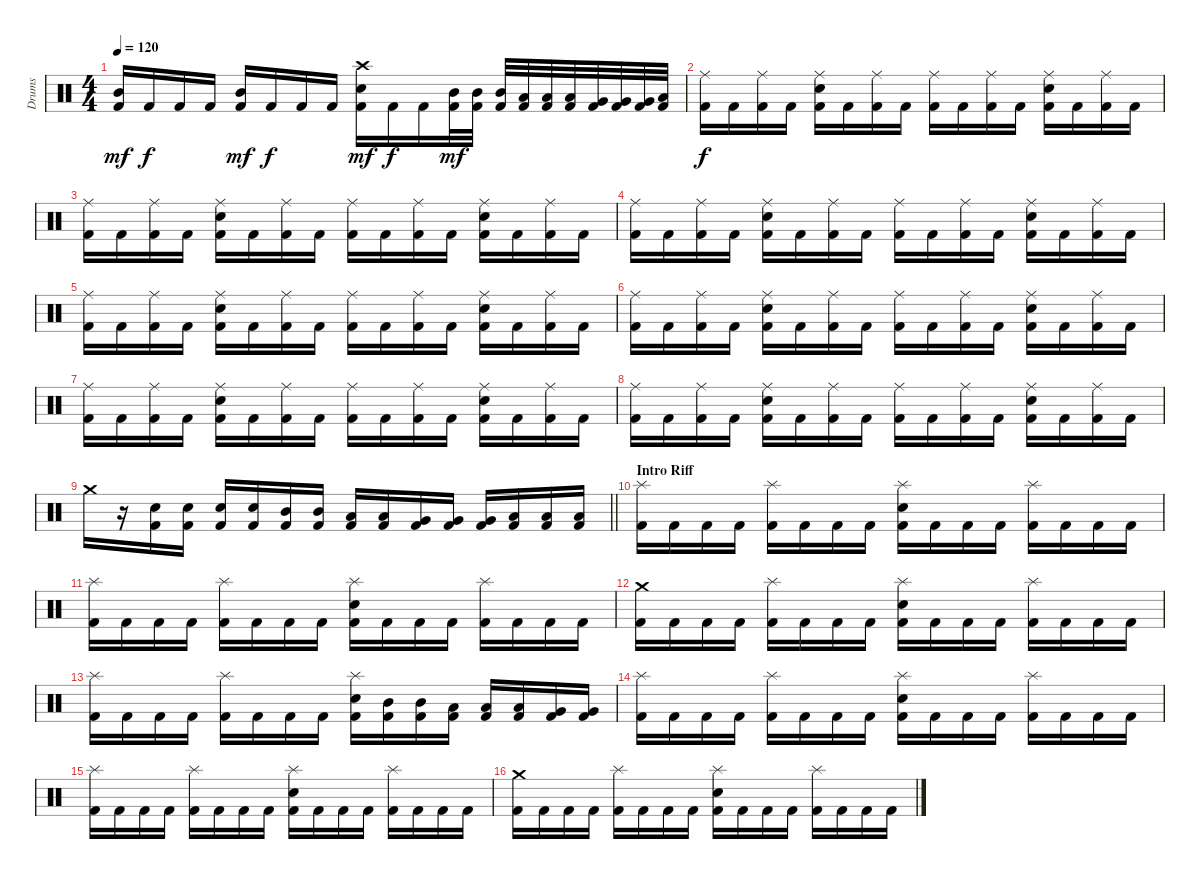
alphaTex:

\track ("Drums" "Drums") {instrument percussion}
\staff {score}
\articulation defaults
\ts (4 4)
\tempo 120
\clef neutral
\ks c
("Kick (hit) 2" "Mid Tom (hit)").16{dy mf} "Kick (hit) 2".16{dy f} "Kick (hit) 2".16 "Kick (hit) 2".16 ("Kick (hit) 2" "Mid Tom (hit)").16{dy mf} "Kick (hit) 2".16{dy f} "Kick (hit) 2".16 "Kick (hit) 2".16 ("Kick (hit) 2" "Snare (hit) 2" "Crash high (hit)").16{dy mf} "Kick (hit) 2".16{dy f} "Kick (hit) 2".16 ("Kick (hit) 2" "Mid Tom (hit)").32{dy mf} ("Kick (hit) 2" "Mid Tom (hit)").32 ("Kick (hit) 2" "Mid Tom (hit)").32 ("Kick (hit) 2" "Low Tom (hit)").32 ("Kick (hit) 2" "Low Tom (hit)").32 ("Kick (hit) 2" "Low Tom (hit)").32 ("Kick (hit) 2" "Very Low Tom (hit)").32 ("Kick (hit) 2" "Very Low Tom (hit)").32 ("Kick (hit) 2" "Very Low Tom (hit)").32 ("Kick (hit) 2" "Low Floor Tom (hit)").32 |
("Kick (hit) 2" "Ride (middle)").16{dy f balance 13} "Kick (hit) 2".16 ("Kick (hit) 2" "Ride (middle)").16 "Kick (hit) 2".16 ("Kick (hit) 2" "Ride (middle)" "Snare (hit) 2").16 "Kick (hit) 2".16 ("Kick (hit) 2" "Ride (middle)").16 "Kick (hit) 2".16 ("Kick (hit) 2" "Ride (middle)").16 "Kick (hit) 2".16 ("Kick (hit) 2" "Ride (middle)").16 "Kick (hit) 2".16 ("Kick (hit) 2" "Ride (middle)" "Snare (hit) 2").16 "Kick (hit) 2".16 ("Kick (hit) 2" "Ride (middle)").16 "Kick (hit) 2".16 |
("Kick (hit) 2" "Ride (middle)").16 "Kick (hit) 2".16 ("Kick (hit) 2" "Ride (middle)").16 "Kick (hit) 2".16 ("Kick (hit) 2" "Ride (middle)" "Snare (hit) 2").16 "Kick (hit) 2".16 ("Kick (hit) 2" "Ride (middle)").16 "Kick (hit) 2".16 ("Kick (hit) 2" "Ride (middle)").16 "Kick (hit) 2".16 ("Kick (hit) 2" "Ride (middle)").16 "Kick (hit) 2".16 ("Kick (hit) 2" "Ride (middle)" "Snare (hit) 2").16 "Kick (hit) 2".16 ("Kick (hit) 2" "Ride (middle)").16 "Kick (hit) 2".16 |
("Kick (hit) 2" "Ride (middle)").16 "Kick (hit) 2".16 ("Kick (hit) 2" "Ride (middle)").16 "Kick (hit) 2".16 ("Kick (hit) 2" "Ride (middle)" "Snare (hit) 2").16 "Kick (hit) 2".16 ("Kick (hit) 2" "Ride (middle)").16 "Kick (hit) 2".16 ("Kick (hit) 2" "Ride (middle)").16 "Kick (hit) 2".16 ("Kick (hit) 2" "Ride (middle)").16 "Kick (hit) 2".16 ("Kick (hit) 2" "Ride (middle)" "Snare (hit) 2").16 "Kick (hit) 2".16 ("Kick (hit) 2" "Ride (middle)").16 "Kick (hit) 2".16 |
("Kick (hit) 2" "Ride (middle)").16 "Kick (hit) 2".16 ("Kick (hit) 2" "Ride (middle)").16 "Kick (hit) 2".16 ("Kick (hit) 2" "Ride (middle)" "Snare (hit) 2").16 "Kick (hit) 2".16 ("Kick (hit) 2" "Ride (middle)").16 "Kick (hit) 2".16 ("Kick (hit) 2" "Ride (middle)").16 "Kick (hit) 2".16 ("Kick (hit) 2" "Ride (middle)").16 "Kick (hit) 2".16 ("Kick (hit) 2" "Ride (middle)" "Snare (hit) 2").16 "Kick (hit) 2".16 ("Kick (hit) 2" "Ride (middle)").16 "Kick (hit) 2".16 |
("Kick (hit) 2" "Ride (middle)").16 "Kick (hit) 2".16 ("Kick (hit) 2" "Ride (middle)").16 "Kick (hit) 2".16 ("Kick (hit) 2" "Ride (middle)" "Snare (hit) 2").16 "Kick (hit) 2".16 ("Kick (hit) 2" "Ride (middle)").16 "Kick (hit) 2".16 ("Kick (hit) 2" "Ride (middle)").16 "Kick (hit) 2".16 ("Kick (hit) 2" "Ride (middle)").16 "Kick (hit) 2".16 ("Kick (hit) 2" "Ride (middle)" "Snare (hit) 2").16 "Kick (hit) 2".16 ("Kick (hit) 2" "Ride (middle)").16 "Kick (hit) 2".16 |
("Kick (hit) 2" "Ride (middle)").16 "Kick (hit) 2".16 ("Kick (hit) 2" "Ride (middle)").16 "Kick (hit) 2".16 ("Kick (hit) 2" "Ride (middle)" "Snare (hit) 2").16 "Kick (hit) 2".16 ("Kick (hit) 2" "Ride (middle)").16 "Kick (hit) 2".16 ("Kick (hit) 2" "Ride (middle)").16 "Kick (hit) 2".16 ("Kick (hit) 2" "Ride (middle)").16 "Kick (hit) 2".16 ("Kick (hit) 2" "Ride (middle)" "Snare (hit) 2").16 "Kick (hit) 2".16 ("Kick (hit) 2" "Ride (middle)").16 "Kick (hit) 2".16 |
("Kick (hit) 2" "Ride (middle)").16 "Kick (hit) 2".16 ("Kick (hit) 2" "Ride (middle)").16 "Kick (hit) 2".16 ("Kick (hit) 2" "Ride (middle)" "Snare (hit) 2").16 "Kick (hit) 2".16 ("Kick (hit) 2" "Ride (middle)").16 "Kick (hit) 2".16 ("Kick (hit) 2" "Ride (middle)").16 "Kick (hit) 2".16 ("Kick (hit) 2" "Ride (middle)").16 "Kick (hit) 2".16 ("Kick (hit) 2" "Ride (middle)" "Snare (hit) 2").16 "Kick (hit) 2".16 ("Kick (hit) 2" "Ride (middle)").16 "Kick (hit) 2".16 |
\barLineRight lightlight "Crash medium (hit)".16
r.16 ("Kick (hit) 2" "Snare (hit) 2").16 ("Kick (hit) 2" "Snare (hit) 2").16 ("Kick (hit) 2" "Snare (hit) 2").16 ("Kick (hit) 2" "Snare (hit) 2").16 ("Kick (hit) 2" "Mid Tom (hit)").16 ("Kick (hit) 2" "Mid Tom (hit)").16 ("Kick (hit) 2" "Low Tom (hit)").16 ("Kick (hit) 2" "Low Tom (hit)").16 ("Kick (hit) 2" "Very Low Tom (hit)").16 ("Kick (hit) 2" "Very Low Tom (hit)").16 ("Kick (hit) 2" "Very Low Tom (hit)").16 ("Kick (hit) 2" "Low Floor Tom (hit)").16 ("Kick (hit) 2" "Low Floor Tom (hit)").16 ("Kick (hit) 2" "Low Floor Tom (hit)").16 |
\section ("" "Intro Riff")
("Kick (hit) 2" "Splash (hit)").16 "Kick (hit) 2".16 "Kick (hit) 2".16 "Kick (hit) 2".16 ("Kick (hit) 2" "Splash (hit)").16 "Kick (hit) 2".16 "Kick (hit) 2".16 "Kick (hit) 2".16 ("Kick (hit) 2" "Splash (hit)" "Snare (hit) 2").16 "Kick (hit) 2".16 "Kick (hit) 2".16 "Kick (hit) 2".16 ("Kick (hit) 2" "Splash (hit)").16 "Kick (hit) 2".16 "Kick (hit) 2".16 "Kick (hit) 2".16 |
("Kick (hit) 2" "Splash (hit)").16 "Kick (hit) 2".16 "Kick (hit) 2".16 "Kick (hit) 2".16 ("Kick (hit) 2" "Splash (hit)").16 "Kick (hit) 2".16 "Kick (hit) 2".16 "Kick (hit) 2".16 ("Kick (hit) 2" "Splash (hit)" "Snare (hit) 2").16 "Kick (hit) 2".16 "Kick (hit) 2".16 "Kick (hit) 2".16 ("Kick (hit) 2" "Splash (hit)").16 "Kick (hit) 2".16 "Kick (hit) 2".16 "Kick (hit) 2".16 |
("Kick (hit) 2" "Crash medium (hit)").16 "Kick (hit) 2".16 "Kick (hit) 2".16 "Kick (hit) 2".16 ("Kick (hit) 2" "Splash (hit)").16 "Kick (hit) 2".16 "Kick (hit) 2".16 "Kick (hit) 2".16 ("Kick (hit) 2" "Splash (hit)" "Snare (hit) 2").16 "Kick (hit) 2".16 "Kick (hit) 2".16 "Kick (hit) 2".16 ("Kick (hit) 2" "Splash (hit)").16 "Kick (hit) 2".16 "Kick (hit) 2".16 "Kick (hit) 2".16 |
("Kick (hit) 2" "Splash (hit)").16 "Kick (hit) 2".16 "Kick (hit) 2".16 "Kick (hit) 2".16 ("Kick (hit) 2" "Splash (hit)").16 "Kick (hit) 2".16 "Kick (hit) 2".16 "Kick (hit) 2".16 ("Kick (hit) 2" "Splash (hit)" "Snare (hit) 2").16 ("Kick (hit) 2" "Mid Tom (hit)").16 ("Kick (hit) 2" "Mid Tom (hit)").16 ("Kick (hit) 2" "Low Tom (hit)").16 ("Kick (hit) 2" "Low Tom (hit)").16 ("Kick (hit) 2" "Low Tom (hit)").16 ("Kick (hit) 2" "Very Low Tom (hit)").16 ("Kick (hit) 2" "Very Low Tom (hit)").16 |
("Kick (hit) 2" "Splash (hit)").16 "Kick (hit) 2".16 "Kick (hit) 2".16 "Kick (hit) 2".16 ("Kick (hit) 2" "Splash (hit)").16 "Kick (hit) 2".16 "Kick (hit) 2".16 "Kick (hit) 2".16 ("Kick (hit) 2" "Splash (hit)" "Snare (hit) 2").16 "Kick (hit) 2".16 "Kick (hit) 2".16 "Kick (hit) 2".16 ("Kick (hit) 2" "Splash (hit)").16 "Kick (hit) 2".16 "Kick (hit) 2".16 "Kick (hit) 2".16 |
("Kick (hit) 2" "Splash (hit)").16 "Kick (hit) 2".16 "Kick (hit) 2".16 "Kick (hit) 2".16 ("Kick (hit) 2" "Splash (hit)").16 "Kick (hit) 2".16 "Kick (hit) 2".16 "Kick (hit) 2".16 ("Kick (hit) 2" "Splash (hit)" "Snare (hit) 2").16 "Kick (hit) 2".16 "Kick (hit) 2".16 "Kick (hit) 2".16 ("Kick (hit) 2" "Splash (hit)").16 "Kick (hit) 2".16 "Kick (hit) 2".16 "Kick (hit) 2".16 |
("Kick (hit) 2" "Crash medium (hit)").16 "Kick (hit) 2".16 "Kick (hit) 2".16 "Kick (hit) 2".16 ("Kick (hit) 2" "Splash (hit)").16 "Kick (hit) 2".16 "Kick (hit) 2".16 "Kick (hit) 2".16 ("Kick (hit) 2" "Splash (hit)" "Snare (hit) 2").16 "Kick (hit) 2".16 "Kick (hit) 2".16 "Kick (hit) 2".16 ("Kick (hit) 2" "Splash (hit)").16 "Kick (hit) 2".16 "Kick (hit) 2".16 "Kick (hit) 2".16
